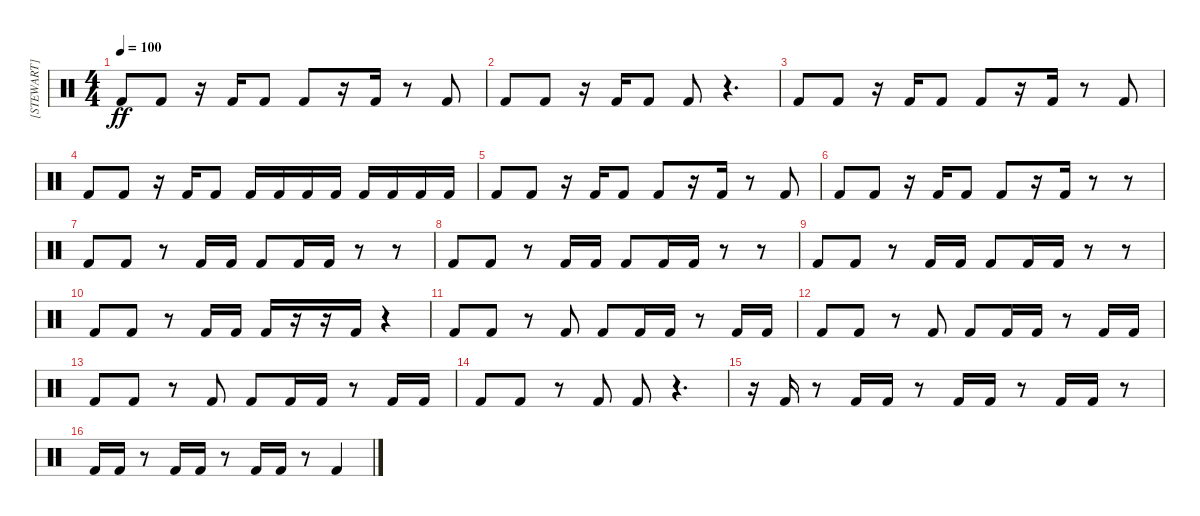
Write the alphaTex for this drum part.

\track ("[STEWART] (бас)" "[STEWART] ") {instrument percussion}
\staff {score}
\articulation defaults
\ts (4 4)
\tempo 100
\clef neutral
\ks c "Kick (hit) 2".8{dy ff} "Kick (hit) 2".8
r.16 "Kick (hit) 2".16 "Kick (hit) 2".8 "Kick (hit) 2".8 r.16 "Kick (hit) 2".16 r.8 "Kick (hit) 2".8 |
"Kick (hit) 2".8 "Kick (hit) 2".8 r.16 "Kick (hit) 2".16 "Kick (hit) 2".8 "Kick (hit) 2".8 r.4{d} |
"Kick (hit) 2".8 "Kick (hit) 2".8 r.16 "Kick (hit) 2".16 "Kick (hit) 2".8 "Kick (hit) 2".8 r.16 "Kick (hit) 2".16 r.8 "Kick (hit) 2".8 |
"Kick (hit) 2".8 "Kick (hit) 2".8 r.16 "Kick (hit) 2".16 "Kick (hit) 2".8 "Kick (hit) 2".16 "Kick (hit) 2".16 "Kick (hit) 2".16 "Kick (hit) 2".16 "Kick (hit) 2".16 "Kick (hit) 2".16 "Kick (hit) 2".16 "Kick (hit) 2".16 |
"Kick (hit) 2".8 "Kick (hit) 2".8 r.16 "Kick (hit) 2".16 "Kick (hit) 2".8 "Kick (hit) 2".8 r.16 "Kick (hit) 2".16 r.8 "Kick (hit) 2".8 |
"Kick (hit) 2".8 "Kick (hit) 2".8 r.16 "Kick (hit) 2".16 "Kick (hit) 2".8 "Kick (hit) 2".8 r.16 "Kick (hit) 2".16 r.8 r.8 |
"Kick (hit) 2".8 "Kick (hit) 2".8 r.8 "Kick (hit) 2".16 "Kick (hit) 2".16 "Kick (hit) 2".8 "Kick (hit) 2".16 "Kick (hit) 2".16 r.8 r.8 |
"Kick (hit) 2".8 "Kick (hit) 2".8 r.8 "Kick (hit) 2".16 "Kick (hit) 2".16 "Kick (hit) 2".8 "Kick (hit) 2".16 "Kick (hit) 2".16 r.8 r.8 |
"Kick (hit) 2".8 "Kick (hit) 2".8 r.8 "Kick (hit) 2".16 "Kick (hit) 2".16 "Kick (hit) 2".8 "Kick (hit) 2".16 "Kick (hit) 2".16 r.8 r.8 |
"Kick (hit) 2".8 "Kick (hit) 2".8 r.8 "Kick (hit) 2".16 "Kick (hit) 2".16 "Kick (hit) 2".16 r.16 r.16 "Kick (hit) 2".16 r.4 |
"Kick (hit) 2".8 "Kick (hit) 2".8 r.8 "Kick (hit) 2".8 "Kick (hit) 2".8 "Kick (hit) 2".16 "Kick (hit) 2".16 r.8 "Kick (hit) 2".16 "Kick (hit) 2".16 |
"Kick (hit) 2".8 "Kick (hit) 2".8 r.8 "Kick (hit) 2".8 "Kick (hit) 2".8 "Kick (hit) 2".16 "Kick (hit) 2".16 r.8 "Kick (hit) 2".16 "Kick (hit) 2".16 |
"Kick (hit) 2".8 "Kick (hit) 2".8 r.8 "Kick (hit) 2".8 "Kick (hit) 2".8 "Kick (hit) 2".16 "Kick (hit) 2".16 r.8 "Kick (hit) 2".16 "Kick (hit) 2".16 |
"Kick (hit) 2".8 "Kick (hit) 2".8 r.8 "Kick (hit) 2".8 "Kick (hit) 2".8 r.4{d} |
r.16 "Kick (hit) 2".16 r.8 "Kick (hit) 2".16 "Kick (hit) 2".16 r.8 "Kick (hit) 2".16 "Kick (hit) 2".16 r.8 "Kick (hit) 2".16 "Kick (hit) 2".16 r.8 |
"Kick (hit) 2".16 "Kick (hit) 2".16 r.8 "Kick (hit) 2".16 "Kick (hit) 2".16 r.8 "Kick (hit) 2".16 "Kick (hit) 2".16 r.8 "Kick (hit) 2".4
